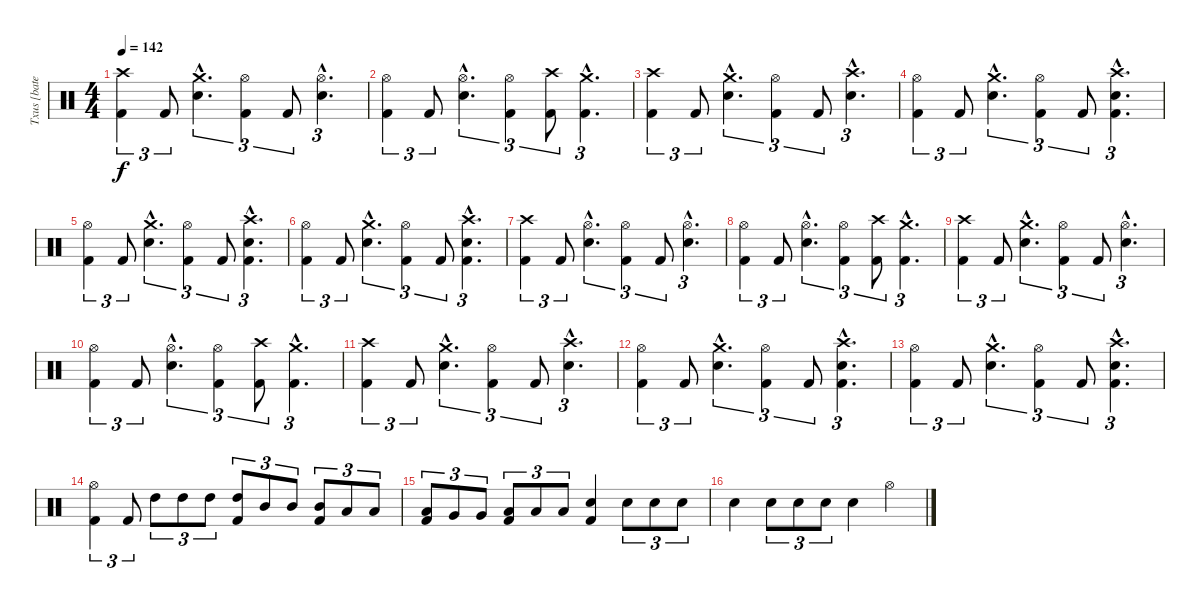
\track ("Txus [bateria]" "Txus [bate") {instrument percussion}
\staff {score}
\articulation defaults
\ts (4 4)
\tempo 142
\clef neutral
\ks c
("Crash high (hit)" "Kick (hit) 2").4{tu (3 2) dy f} "Kick (hit) 2".8{tu (3 2)} ("Crash medium (hit)"{hac} "Snare (hit) 2"{hac}).4{d tu (3 2)} ("Hi-Hat (open)" "Kick (hit) 2").4{tu (3 2)} "Kick (hit) 2".8{tu (3 2)} ("Hi-Hat (open)"{hac} "Snare (hit) 2"{hac}).4{d tu (3 2)} |
("Hi-Hat (open)" "Kick (hit) 2").4{tu (3 2)} "Kick (hit) 2".8{tu (3 2)} ("Hi-Hat (open)"{hac} "Snare (hit) 2"{hac}).4{d tu (3 2)} ("Hi-Hat (open)" "Kick (hit) 2").4{tu (3 2)} ("Crash high (hit)" "Kick (hit) 2").8{tu (3 2)} ("Crash medium (hit)"{hac} "Kick (hit) 2"{hac}).4{d tu (3 2)} |
("Crash high (hit)" "Kick (hit) 2").4{tu (3 2)} "Kick (hit) 2".8{tu (3 2)} ("Crash medium (hit)"{hac} "Snare (hit) 2"{hac}).4{d tu (3 2)} ("Hi-Hat (open)" "Kick (hit) 2").4{tu (3 2)} "Kick (hit) 2".8{tu (3 2)} ("Crash high (hit)"{hac} "Snare (hit) 2"{hac}).4{d tu (3 2)} |
("Hi-Hat (open)" "Kick (hit) 2").4{tu (3 2)} "Kick (hit) 2".8{tu (3 2)} ("Crash medium (hit)"{hac} "Snare (hit) 2"{hac}).4{d tu (3 2)} ("Hi-Hat (open)" "Kick (hit) 2").4{tu (3 2)} "Kick (hit) 2".8{tu (3 2)} ("Crash high (hit)"{hac} "Snare (hit) 2"{hac} "Kick (hit) 2"{hac}).4{d tu (3 2)} |
("Hi-Hat (open)" "Kick (hit) 2").4{tu (3 2)} "Kick (hit) 2".8{tu (3 2)} ("Crash medium (hit)"{hac} "Snare (hit) 2"{hac}).4{d tu (3 2)} ("Hi-Hat (open)" "Kick (hit) 2").4{tu (3 2)} "Kick (hit) 2".8{tu (3 2)} ("Crash high (hit)"{hac} "Snare (hit) 2"{hac} "Kick (hit) 2"{hac}).4{d tu (3 2)} |
("Hi-Hat (open)" "Kick (hit) 2").4{tu (3 2)} "Kick (hit) 2".8{tu (3 2)} ("Crash medium (hit)"{hac} "Snare (hit) 2"{hac}).4{d tu (3 2)} ("Hi-Hat (open)" "Kick (hit) 2").4{tu (3 2)} "Kick (hit) 2".8{tu (3 2)} ("Crash high (hit)"{hac} "Snare (hit) 2"{hac} "Kick (hit) 2"{hac}).4{d tu (3 2)} |
("Crash high (hit)" "Kick (hit) 2").4{tu (3 2)} "Kick (hit) 2".8{tu (3 2)} ("Hi-Hat (open)"{hac} "Snare (hit) 2"{hac}).4{d tu (3 2)} ("Hi-Hat (open)" "Kick (hit) 2").4{tu (3 2)} "Kick (hit) 2".8{tu (3 2)} ("Hi-Hat (open)"{hac} "Snare (hit) 2"{hac}).4{d tu (3 2)} |
("Hi-Hat (open)" "Kick (hit) 2").4{tu (3 2)} "Kick (hit) 2".8{tu (3 2)} ("Hi-Hat (open)"{hac} "Snare (hit) 2"{hac}).4{d tu (3 2)} ("Hi-Hat (open)" "Kick (hit) 2").4{tu (3 2)} ("Crash high (hit)" "Kick (hit) 2").8{tu (3 2)} ("Crash medium (hit)"{hac} "Kick (hit) 2"{hac}).4{d tu (3 2)} |
("Crash high (hit)" "Kick (hit) 2").4{tu (3 2)} "Kick (hit) 2".8{tu (3 2)} ("Crash medium (hit)"{hac} "Snare (hit) 2"{hac}).4{d tu (3 2)} ("Hi-Hat (open)" "Kick (hit) 2").4{tu (3 2)} "Kick (hit) 2".8{tu (3 2)} ("Hi-Hat (open)"{hac} "Snare (hit) 2"{hac}).4{d tu (3 2)} |
("Hi-Hat (open)" "Kick (hit) 2").4{tu (3 2)} "Kick (hit) 2".8{tu (3 2)} ("Hi-Hat (open)"{hac} "Snare (hit) 2"{hac}).4{d tu (3 2)} ("Hi-Hat (open)" "Kick (hit) 2").4{tu (3 2)} ("Crash high (hit)" "Kick (hit) 2").8{tu (3 2)} ("Crash medium (hit)"{hac} "Kick (hit) 2"{hac}).4{d tu (3 2)} |
("Crash high (hit)" "Kick (hit) 2").4{tu (3 2)} "Kick (hit) 2".8{tu (3 2)} ("Crash medium (hit)"{hac} "Snare (hit) 2"{hac}).4{d tu (3 2)} ("Hi-Hat (open)" "Kick (hit) 2").4{tu (3 2)} "Kick (hit) 2".8{tu (3 2)} ("Crash high (hit)"{hac} "Snare (hit) 2"{hac}).4{d tu (3 2)} |
("Hi-Hat (open)" "Kick (hit) 2").4{tu (3 2)} "Kick (hit) 2".8{tu (3 2)} ("Crash medium (hit)"{hac} "Snare (hit) 2"{hac}).4{d tu (3 2)} ("Hi-Hat (open)" "Kick (hit) 2").4{tu (3 2)} "Kick (hit) 2".8{tu (3 2)} ("Crash high (hit)"{hac} "Snare (hit) 2"{hac} "Kick (hit) 2"{hac}).4{d tu (3 2)} |
("Hi-Hat (open)" "Kick (hit) 2").4{tu (3 2)} "Kick (hit) 2".8{tu (3 2)} ("Crash medium (hit)"{hac} "Snare (hit) 2"{hac}).4{d tu (3 2)} ("Hi-Hat (open)" "Kick (hit) 2").4{tu (3 2)} "Kick (hit) 2".8{tu (3 2)} ("Crash high (hit)"{hac} "Snare (hit) 2"{hac} "Kick (hit) 2"{hac}).4{d tu (3 2)} |
("Hi-Hat (open)" "Kick (hit) 2").4{tu (3 2)} "Kick (hit) 2".8{tu (3 2)} "High Tom (hit)".8{tu (3 2)} "High Tom (hit)".8{tu (3 2)} "High Tom (hit)".8{tu (3 2)} ("High Tom (hit)" "Kick (hit) 2").8{tu (3 2)} "Mid Tom (hit)".8{tu (3 2)} "Mid Tom (hit)".8{tu (3 2)} ("Mid Tom (hit)" "Kick (hit) 2").8{tu (3 2)} "Low Tom (hit)".8{tu (3 2)} "Low Tom (hit)".8{tu (3 2)} |
("Low Tom (hit)" "Kick (hit) 2").8{tu (3 2)} "Very Low Tom (hit)".8{tu (3 2)} "Very Low Tom (hit)".8{tu (3 2)} ("Low Floor Tom (hit)" "Kick (hit) 2").8{tu (3 2)} "Low Floor Tom (hit)".8{tu (3 2)} "Low Floor Tom (hit)".8{tu (3 2)} ("Snare (hit) 2" "Kick (hit) 2").4 "Snare (hit) 2".8{tu (3 2)} "Snare (hit) 2".8{tu (3 2)} "Snare (hit) 2".8{tu (3 2)} |
"Snare (hit) 2".4 "Snare (hit) 2".8{tu (3 2)} "Snare (hit) 2".8{tu (3 2)} "Snare (hit) 2".8{tu (3 2)} "Snare (hit) 2".4 "Hi-Hat (open)".4
